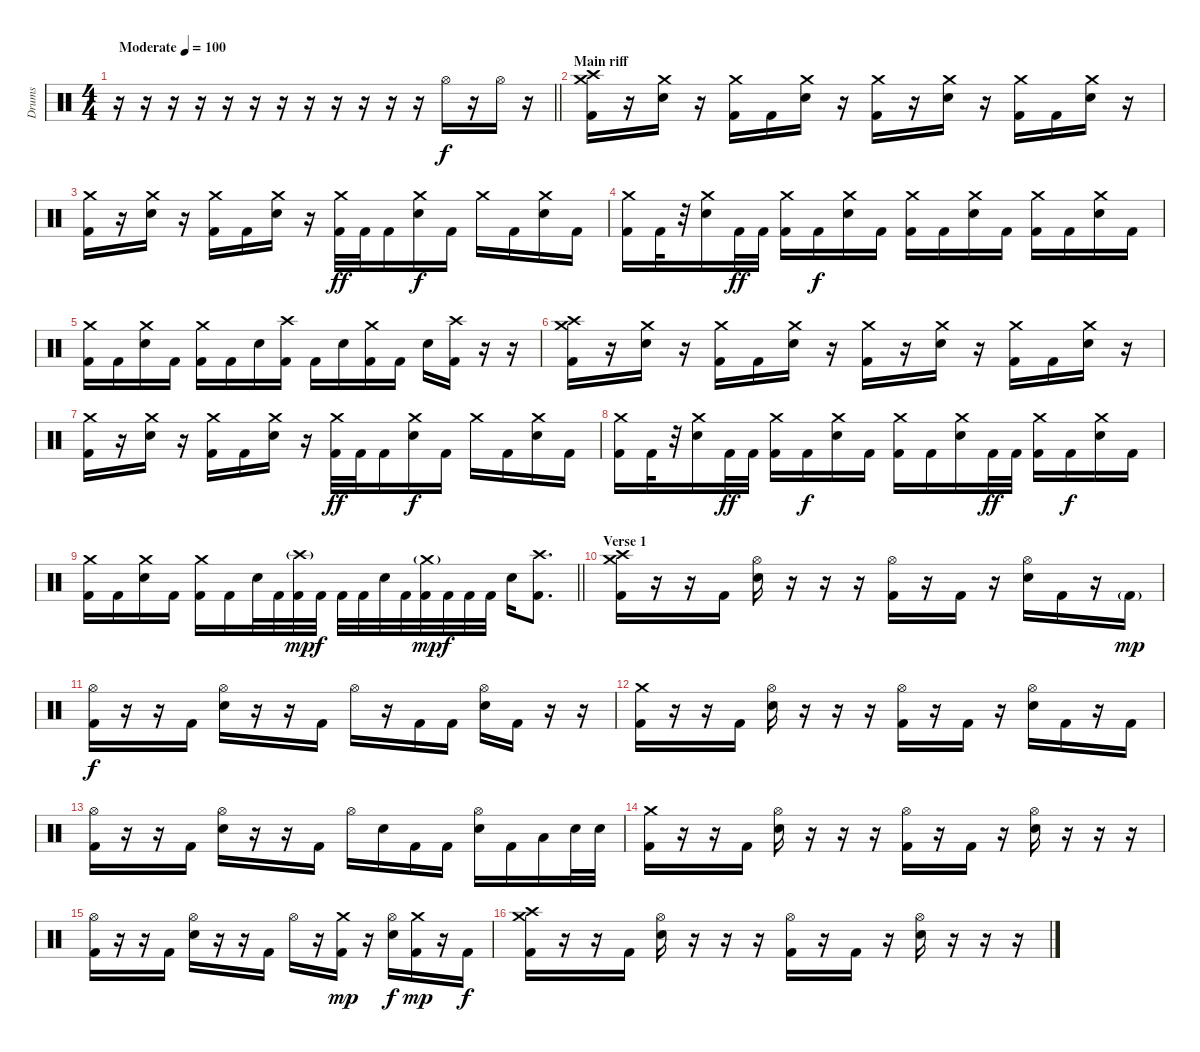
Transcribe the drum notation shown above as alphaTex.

\track ("Drums" "Drums") {instrument percussion}
\staff {score}
\articulation defaults
\ts (4 4)
\tempo (100 "Moderate")
\clef neutral
\barLineRight lightlight
\ks c
r.16{dy f} r.16 r.16 r.16 r.16 r.16 r.16 r.16 r.16 r.16 r.16 r.16 "Hi-Hat (open)".16 r.16 "Hi-Hat (open)".16 r.16 |
\section ("" "Main riff")
("Crash high (hit)" "Crash medium (hit)" "Kick (hit) 2").16 r.16 ("Crash medium (hit)" "Electric Snare (hit)").16 r.16 ("Crash medium (hit)" "Kick (hit) 2").16 "Kick (hit) 2".16 ("Crash medium (hit)" "Electric Snare (hit)").16 r.16 ("Crash medium (hit)" "Kick (hit) 2").16 r.16 ("Crash medium (hit)" "Electric Snare (hit)").16 r.16 ("Crash medium (hit)" "Kick (hit) 2").16 "Kick (hit) 2".16 ("Crash medium (hit)" "Electric Snare (hit)").16 r.16 |
("Crash medium (hit)" "Kick (hit) 2").16 r.16 ("Crash medium (hit)" "Electric Snare (hit)").16 r.16 ("Crash medium (hit)" "Kick (hit) 2").16 "Kick (hit) 2".16 ("Crash medium (hit)" "Electric Snare (hit)").16 r.16 ("Crash medium (hit)" "Kick (hit) 2").32{dy ff} "Kick (hit) 2".32 "Kick (hit) 2".16 ("Crash medium (hit)" "Electric Snare (hit)").16{dy f} "Kick (hit) 2".16 "Crash medium (hit)".16 "Kick (hit) 2".16 ("Crash medium (hit)" "Electric Snare (hit)").16 "Kick (hit) 2".16 |
("Crash medium (hit)" "Kick (hit) 2").16 "Kick (hit) 2".32 r.32 ("Crash medium (hit)" "Electric Snare (hit)").16 "Kick (hit) 2".32{dy ff} "Kick (hit) 2".32 ("Crash medium (hit)" "Kick (hit) 2").16 "Kick (hit) 2".16{dy f} ("Crash medium (hit)" "Electric Snare (hit)").16 "Kick (hit) 2".16 ("Crash medium (hit)" "Kick (hit) 2").16 "Kick (hit) 2".16 ("Crash medium (hit)" "Electric Snare (hit)").16 "Kick (hit) 2".16 ("Crash medium (hit)" "Kick (hit) 2").16 "Kick (hit) 2".16 ("Crash medium (hit)" "Electric Snare (hit)").16 "Kick (hit) 2".16 |
("Crash medium (hit)" "Kick (hit) 2").16 "Kick (hit) 2".16 ("Crash medium (hit)" "Electric Snare (hit)").16 "Kick (hit) 2".16 ("Crash medium (hit)" "Kick (hit) 2").16 "Kick (hit) 2".16 "Electric Snare (hit)".16 ("Crash high (hit)" "Kick (hit) 2").16 "Kick (hit) 2".16 "Electric Snare (hit)".16 ("Crash medium (hit)" "Kick (hit) 2").16 "Kick (hit) 2".16 "Electric Snare (hit)".16 ("Crash high (hit)" "Kick (hit) 2").16 r.16 r.16 |
("Crash high (hit)" "Crash medium (hit)" "Kick (hit) 2").16 r.16 ("Crash medium (hit)" "Electric Snare (hit)").16 r.16 ("Crash medium (hit)" "Kick (hit) 2").16 "Kick (hit) 2".16 ("Crash medium (hit)" "Electric Snare (hit)").16 r.16 ("Crash medium (hit)" "Kick (hit) 2").16 r.16 ("Crash medium (hit)" "Electric Snare (hit)").16 r.16 ("Crash medium (hit)" "Kick (hit) 2").16 "Kick (hit) 2".16 ("Crash medium (hit)" "Electric Snare (hit)").16 r.16 |
("Crash medium (hit)" "Kick (hit) 2").16 r.16 ("Crash medium (hit)" "Electric Snare (hit)").16 r.16 ("Crash medium (hit)" "Kick (hit) 2").16 "Kick (hit) 2".16 ("Crash medium (hit)" "Electric Snare (hit)").16 r.16 ("Crash medium (hit)" "Kick (hit) 2").32{dy ff} "Kick (hit) 2".32 "Kick (hit) 2".16 ("Crash medium (hit)" "Electric Snare (hit)").16{dy f} "Kick (hit) 2".16 "Crash medium (hit)".16 "Kick (hit) 2".16 ("Crash medium (hit)" "Electric Snare (hit)").16 "Kick (hit) 2".16 |
("Crash medium (hit)" "Kick (hit) 2").16 "Kick (hit) 2".32 r.32 ("Crash medium (hit)" "Electric Snare (hit)").16 "Kick (hit) 2".32{dy ff} "Kick (hit) 2".32 ("Crash medium (hit)" "Kick (hit) 2").16 "Kick (hit) 2".16{dy f} ("Crash medium (hit)" "Electric Snare (hit)").16 "Kick (hit) 2".16 ("Crash medium (hit)" "Kick (hit) 2").16 "Kick (hit) 2".16 ("Crash medium (hit)" "Electric Snare (hit)").16 "Kick (hit) 2".32{dy ff} "Kick (hit) 2".32 ("Crash medium (hit)" "Kick (hit) 2").16 "Kick (hit) 2".16{dy f} ("Crash medium (hit)" "Electric Snare (hit)").16 "Kick (hit) 2".16 |
\barLineRight lightlight
("Crash medium (hit)" "Kick (hit) 2").16 "Kick (hit) 2".16 ("Crash medium (hit)" "Electric Snare (hit)").16 "Kick (hit) 2".16 ("Crash medium (hit)" "Kick (hit) 2").16 "Kick (hit) 2".16 "Electric Snare (hit)".32 "Kick (hit) 2".32 ("Crash high (hit)"{g} "Kick (hit) 2").32{dy mp} "Kick (hit) 2".32{dy f} "Kick (hit) 2".32 "Kick (hit) 2".32 "Electric Snare (hit)".32 "Kick (hit) 2".32 ("Crash medium (hit)"{g} "Kick (hit) 2").32{dy mp} "Kick (hit) 2".32{dy f} "Kick (hit) 2".32 "Kick (hit) 2".32 "Electric Snare (hit)".16 ("Crash high (hit)" "Kick (hit) 2").8{d} |
\section ("" "Verse 1")
("Crash high (hit)" "Crash medium (hit)" "Kick (hit) 2").16 r.16 r.16 "Kick (hit) 2".16 ("Hi-Hat (open)" "Electric Snare (hit)").16 r.16 r.16 r.16 ("Hi-Hat (open)" "Kick (hit) 2").16 r.16 "Kick (hit) 2".16 r.16 ("Hi-Hat (open)" "Electric Snare (hit)").16 "Kick (hit) 2".16 r.16 "Kick (hit) 2"{g}.16{dy mp} |
("Hi-Hat (open)" "Kick (hit) 2").16{dy f} r.16 r.16 "Kick (hit) 2".16 ("Hi-Hat (open)" "Electric Snare (hit)").16 r.16 r.16 "Kick (hit) 2".16 "Hi-Hat (open)".16 r.16 "Kick (hit) 2".16 "Kick (hit) 2".16 ("Hi-Hat (open)" "Electric Snare (hit)").16 "Kick (hit) 2".16 r.16 r.16 |
("Crash medium (hit)" "Kick (hit) 2").16 r.16 r.16 "Kick (hit) 2".16 ("Hi-Hat (open)" "Electric Snare (hit)").16 r.16 r.16 r.16 ("Hi-Hat (open)" "Kick (hit) 2").16 r.16 "Kick (hit) 2".16 r.16 ("Hi-Hat (open)" "Electric Snare (hit)").16 "Kick (hit) 2".16 r.16 "Kick (hit) 2".16 |
("Hi-Hat (open)" "Kick (hit) 2").16 r.16 r.16 "Kick (hit) 2".16 ("Hi-Hat (open)" "Electric Snare (hit)").16 r.16 r.16 "Kick (hit) 2".16 "Hi-Hat (open)".16 "Electric Snare (hit)".16 "Kick (hit) 2".16 "Kick (hit) 2".16 ("Hi-Hat (open)" "Electric Snare (hit)").16 "Kick (hit) 2".16 "Low Tom (hit)".16 "Electric Snare (hit)".32 "Electric Snare (hit)".32 |
("Crash medium (hit)" "Kick (hit) 2").16 r.16 r.16 "Kick (hit) 2".16 ("Hi-Hat (open)" "Electric Snare (hit)").16 r.16 r.16 r.16 ("Hi-Hat (open)" "Kick (hit) 2").16 r.16 "Kick (hit) 2".16 r.16 ("Hi-Hat (open)" "Electric Snare (hit)").16 r.16 r.16 r.16 |
("Hi-Hat (open)" "Kick (hit) 2").16 r.16 r.16 "Kick (hit) 2".16 ("Hi-Hat (open)" "Electric Snare (hit)").16 r.16 r.16 "Kick (hit) 2".16 "Hi-Hat (open)".16 r.16 ("Crash medium (hit)" "Kick (hit) 2").16{dy mp} r.16 ("Hi-Hat (open)" "Electric Snare (hit)").16{dy f} ("Crash medium (hit)" "Kick (hit) 2").16{dy mp} r.16 "Kick (hit) 2".16{dy f} |
("Crash high (hit)" "Crash medium (hit)" "Kick (hit) 2").16 r.16 r.16 "Kick (hit) 2".16 ("Hi-Hat (open)" "Electric Snare (hit)").16 r.16 r.16 r.16 ("Hi-Hat (open)" "Kick (hit) 2").16 r.16 "Kick (hit) 2".16 r.16 ("Hi-Hat (open)" "Electric Snare (hit)").16 r.16 r.16 r.16
